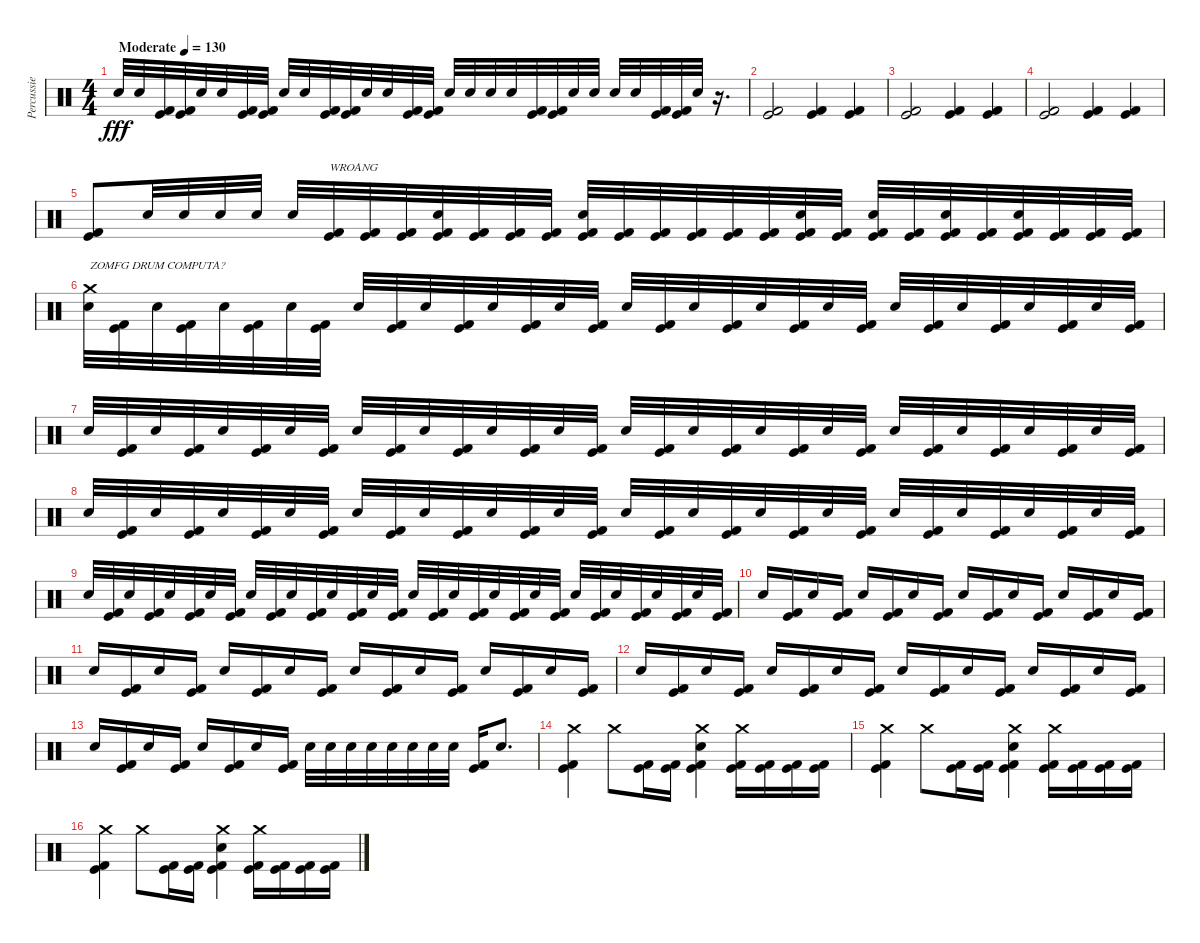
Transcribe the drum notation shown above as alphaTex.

\track ("Percussie" "Percussie") {instrument percussion}
\staff {score}
\articulation defaults
\ts (4 4)
\tempo (130 "Moderate")
\clef neutral
\ks c "Electric Snare (hit)".32{dy fff} "Electric Snare (hit)".32
("Kick (hit)" "Kick (hit) 2").32 ("Kick (hit)" "Kick (hit) 2").32 "Electric Snare (hit)".32 "Electric Snare (hit)".32 ("Kick (hit)" "Kick (hit) 2").32 ("Kick (hit)" "Kick (hit) 2").32 "Electric Snare (hit)".32 "Electric Snare (hit)".32 ("Kick (hit)" "Kick (hit) 2").32 ("Kick (hit)" "Kick (hit) 2").32 "Electric Snare (hit)".32 "Electric Snare (hit)".32 ("Kick (hit)" "Kick (hit) 2").32 ("Kick (hit)" "Kick (hit) 2").32 "Electric Snare (hit)".32 "Electric Snare (hit)".32 "Electric Snare (hit)".32 "Electric Snare (hit)".32 ("Kick (hit)" "Kick (hit) 2").32 ("Kick (hit)" "Kick (hit) 2").32 "Electric Snare (hit)".32 "Electric Snare (hit)".32 "Electric Snare (hit)".32 "Electric Snare (hit)".32 ("Kick (hit)" "Kick (hit) 2").32 ("Kick (hit)" "Kick (hit) 2").32 "Electric Snare (hit)".32 r.16{d} |
("Kick (hit)" "Kick (hit) 2").2 ("Kick (hit)" "Kick (hit) 2").4 ("Kick (hit)" "Kick (hit) 2").4 |
("Kick (hit)" "Kick (hit) 2").2 ("Kick (hit)" "Kick (hit) 2").4 ("Kick (hit)" "Kick (hit) 2").4 |
("Kick (hit)" "Kick (hit) 2").2 ("Kick (hit)" "Kick (hit) 2").4 ("Kick (hit)" "Kick (hit) 2").4 |
("Kick (hit)" "Kick (hit) 2").8 "Electric Snare (hit)".32 "Electric Snare (hit)".32 "Electric Snare (hit)".32 "Electric Snare (hit)".32 "Electric Snare (hit)".32 ("Kick (hit)" "Kick (hit) 2").32{txt "WROANG"} ("Kick (hit)" "Kick (hit) 2").32 ("Kick (hit)" "Kick (hit) 2").32 ("Electric Snare (hit)" "Kick (hit)" "Kick (hit) 2").32 ("Kick (hit)" "Kick (hit) 2").32 ("Kick (hit)" "Kick (hit) 2").32 ("Kick (hit)" "Kick (hit) 2").32 ("Electric Snare (hit)" "Kick (hit)" "Kick (hit) 2").32 ("Kick (hit)" "Kick (hit) 2").32 ("Kick (hit)" "Kick (hit) 2").32 ("Kick (hit)" "Kick (hit) 2").32 ("Kick (hit)" "Kick (hit) 2").32 ("Kick (hit)" "Kick (hit) 2").32 ("Electric Snare (hit)" "Kick (hit)" "Kick (hit) 2").32 ("Kick (hit)" "Kick (hit) 2").32 ("Electric Snare (hit)" "Kick (hit)" "Kick (hit) 2").32 ("Kick (hit)" "Kick (hit) 2").32 ("Electric Snare (hit)" "Kick (hit)" "Kick (hit) 2").32 ("Kick (hit)" "Kick (hit) 2").32 ("Electric Snare (hit)" "Kick (hit)" "Kick (hit) 2").32 ("Kick (hit)" "Kick (hit) 2").32 ("Kick (hit)" "Kick (hit) 2").32 ("Kick (hit)" "Kick (hit) 2").32 |
("Crash medium (hit)" "Electric Snare (hit)").32{txt "ZOMFG DRUM COMPUTA?"} ("Kick (hit)" "Kick (hit) 2").32 "Electric Snare (hit)".32 ("Kick (hit)" "Kick (hit) 2").32 "Electric Snare (hit)".32 ("Kick (hit)" "Kick (hit) 2").32 "Electric Snare (hit)".32 ("Kick (hit)" "Kick (hit) 2").32 "Electric Snare (hit)".32 ("Kick (hit)" "Kick (hit) 2").32 "Electric Snare (hit)".32 ("Kick (hit)" "Kick (hit) 2").32 "Electric Snare (hit)".32 ("Kick (hit)" "Kick (hit) 2").32 "Electric Snare (hit)".32 ("Kick (hit)" "Kick (hit) 2").32 "Electric Snare (hit)".32 ("Kick (hit)" "Kick (hit) 2").32 "Electric Snare (hit)".32 ("Kick (hit)" "Kick (hit) 2").32 "Electric Snare (hit)".32 ("Kick (hit)" "Kick (hit) 2").32 "Electric Snare (hit)".32 ("Kick (hit)" "Kick (hit) 2").32 "Electric Snare (hit)".32 ("Kick (hit)" "Kick (hit) 2").32 "Electric Snare (hit)".32 ("Kick (hit)" "Kick (hit) 2").32 "Electric Snare (hit)".32 ("Kick (hit)" "Kick (hit) 2").32 "Electric Snare (hit)".32 ("Kick (hit)" "Kick (hit) 2").32 |
"Electric Snare (hit)".32 ("Kick (hit)" "Kick (hit) 2").32 "Electric Snare (hit)".32 ("Kick (hit)" "Kick (hit) 2").32 "Electric Snare (hit)".32 ("Kick (hit)" "Kick (hit) 2").32 "Electric Snare (hit)".32 ("Kick (hit)" "Kick (hit) 2").32 "Electric Snare (hit)".32 ("Kick (hit)" "Kick (hit) 2").32 "Electric Snare (hit)".32 ("Kick (hit)" "Kick (hit) 2").32 "Electric Snare (hit)".32 ("Kick (hit)" "Kick (hit) 2").32 "Electric Snare (hit)".32 ("Kick (hit)" "Kick (hit) 2").32 "Electric Snare (hit)".32 ("Kick (hit)" "Kick (hit) 2").32 "Electric Snare (hit)".32 ("Kick (hit)" "Kick (hit) 2").32 "Electric Snare (hit)".32 ("Kick (hit)" "Kick (hit) 2").32 "Electric Snare (hit)".32 ("Kick (hit)" "Kick (hit) 2").32 "Electric Snare (hit)".32 ("Kick (hit)" "Kick (hit) 2").32 "Electric Snare (hit)".32 ("Kick (hit)" "Kick (hit) 2").32 "Electric Snare (hit)".32 ("Kick (hit)" "Kick (hit) 2").32 "Electric Snare (hit)".32 ("Kick (hit)" "Kick (hit) 2").32 |
"Electric Snare (hit)".32 ("Kick (hit)" "Kick (hit) 2").32 "Electric Snare (hit)".32 ("Kick (hit)" "Kick (hit) 2").32 "Electric Snare (hit)".32 ("Kick (hit)" "Kick (hit) 2").32 "Electric Snare (hit)".32 ("Kick (hit)" "Kick (hit) 2").32 "Electric Snare (hit)".32 ("Kick (hit)" "Kick (hit) 2").32 "Electric Snare (hit)".32 ("Kick (hit)" "Kick (hit) 2").32 "Electric Snare (hit)".32 ("Kick (hit)" "Kick (hit) 2").32 "Electric Snare (hit)".32 ("Kick (hit)" "Kick (hit) 2").32 "Electric Snare (hit)".32 ("Kick (hit)" "Kick (hit) 2").32 "Electric Snare (hit)".32 ("Kick (hit)" "Kick (hit) 2").32 "Electric Snare (hit)".32 ("Kick (hit)" "Kick (hit) 2").32 "Electric Snare (hit)".32 ("Kick (hit)" "Kick (hit) 2").32 "Electric Snare (hit)".32 ("Kick (hit)" "Kick (hit) 2").32 "Electric Snare (hit)".32 ("Kick (hit)" "Kick (hit) 2").32 "Electric Snare (hit)".32 ("Kick (hit)" "Kick (hit) 2").32 "Electric Snare (hit)".32 ("Kick (hit)" "Kick (hit) 2").32 |
"Electric Snare (hit)".32 ("Kick (hit)" "Kick (hit) 2").32 "Electric Snare (hit)".32 ("Kick (hit)" "Kick (hit) 2").32 "Electric Snare (hit)".32 ("Kick (hit)" "Kick (hit) 2").32 "Electric Snare (hit)".32 ("Kick (hit)" "Kick (hit) 2").32 "Electric Snare (hit)".32 ("Kick (hit)" "Kick (hit) 2").32 "Electric Snare (hit)".32 ("Kick (hit)" "Kick (hit) 2").32 "Electric Snare (hit)".32 ("Kick (hit)" "Kick (hit) 2").32 "Electric Snare (hit)".32 ("Kick (hit)" "Kick (hit) 2").32 "Electric Snare (hit)".32 ("Kick (hit)" "Kick (hit) 2").32 "Electric Snare (hit)".32 ("Kick (hit)" "Kick (hit) 2").32 "Electric Snare (hit)".32 ("Kick (hit)" "Kick (hit) 2").32 "Electric Snare (hit)".32 ("Kick (hit)" "Kick (hit) 2").32 "Electric Snare (hit)".32 ("Kick (hit)" "Kick (hit) 2").32 "Electric Snare (hit)".32 ("Kick (hit)" "Kick (hit) 2").32 "Electric Snare (hit)".32 ("Kick (hit)" "Kick (hit) 2").32 "Electric Snare (hit)".32 ("Kick (hit)" "Kick (hit) 2").32 |
"Electric Snare (hit)".16 ("Kick (hit)" "Kick (hit) 2").16 "Electric Snare (hit)".16 ("Kick (hit)" "Kick (hit) 2").16 "Electric Snare (hit)".16 ("Kick (hit)" "Kick (hit) 2").16 "Electric Snare (hit)".16 ("Kick (hit)" "Kick (hit) 2").16 "Electric Snare (hit)".16 ("Kick (hit)" "Kick (hit) 2").16 "Electric Snare (hit)".16 ("Kick (hit)" "Kick (hit) 2").16 "Electric Snare (hit)".16 ("Kick (hit)" "Kick (hit) 2").16 "Electric Snare (hit)".16 ("Kick (hit)" "Kick (hit) 2").16 |
"Electric Snare (hit)".16 ("Kick (hit)" "Kick (hit) 2").16 "Electric Snare (hit)".16 ("Kick (hit)" "Kick (hit) 2").16 "Electric Snare (hit)".16 ("Kick (hit)" "Kick (hit) 2").16 "Electric Snare (hit)".16 ("Kick (hit)" "Kick (hit) 2").16 "Electric Snare (hit)".16 ("Kick (hit)" "Kick (hit) 2").16 "Electric Snare (hit)".16 ("Kick (hit)" "Kick (hit) 2").16 "Electric Snare (hit)".16 ("Kick (hit)" "Kick (hit) 2").16 "Electric Snare (hit)".16 ("Kick (hit)" "Kick (hit) 2").16 |
"Electric Snare (hit)".16 ("Kick (hit)" "Kick (hit) 2").16 "Electric Snare (hit)".16 ("Kick (hit)" "Kick (hit) 2").16 "Electric Snare (hit)".16 ("Kick (hit)" "Kick (hit) 2").16 "Electric Snare (hit)".16 ("Kick (hit)" "Kick (hit) 2").16 "Electric Snare (hit)".16 ("Kick (hit)" "Kick (hit) 2").16 "Electric Snare (hit)".16 ("Kick (hit)" "Kick (hit) 2").16 "Electric Snare (hit)".16 ("Kick (hit)" "Kick (hit) 2").16 "Electric Snare (hit)".16 ("Kick (hit)" "Kick (hit) 2").16 |
"Electric Snare (hit)".16 ("Kick (hit)" "Kick (hit) 2").16 "Electric Snare (hit)".16 ("Kick (hit)" "Kick (hit) 2").16 "Electric Snare (hit)".16 ("Kick (hit)" "Kick (hit) 2").16 "Electric Snare (hit)".16 ("Kick (hit)" "Kick (hit) 2").16 "Electric Snare (hit)".32 "Electric Snare (hit)".32 "Electric Snare (hit)".32 "Electric Snare (hit)".32 "Electric Snare (hit)".32 "Electric Snare (hit)".32 "Electric Snare (hit)".32 "Electric Snare (hit)".32 ("Kick (hit)" "Kick (hit) 2").16 "Electric Snare (hit)".8{d} |
("Crash medium (hit)" "Kick (hit)" "Kick (hit) 2").4 "Crash medium (hit)".8 ("Kick (hit)" "Kick (hit) 2").16 ("Kick (hit)" "Kick (hit) 2").16 ("Crash medium (hit)" "Electric Snare (hit)" "Kick (hit)" "Kick (hit) 2").4 ("Crash medium (hit)" "Kick (hit)" "Kick (hit) 2").16 ("Kick (hit)" "Kick (hit) 2").16 ("Kick (hit)" "Kick (hit) 2").16 ("Kick (hit)" "Kick (hit) 2").16 |
("Crash medium (hit)" "Kick (hit)" "Kick (hit) 2").4 "Crash medium (hit)".8 ("Kick (hit)" "Kick (hit) 2").16 ("Kick (hit)" "Kick (hit) 2").16 ("Crash medium (hit)" "Electric Snare (hit)" "Kick (hit)" "Kick (hit) 2").4 ("Crash medium (hit)" "Kick (hit)" "Kick (hit) 2").16 ("Kick (hit)" "Kick (hit) 2").16 ("Kick (hit)" "Kick (hit) 2").16 ("Kick (hit)" "Kick (hit) 2").16 |
("Crash medium (hit)" "Kick (hit)" "Kick (hit) 2").4 "Crash medium (hit)".8 ("Kick (hit)" "Kick (hit) 2").16 ("Kick (hit)" "Kick (hit) 2").16 ("Crash medium (hit)" "Electric Snare (hit)" "Kick (hit)" "Kick (hit) 2").4 ("Crash medium (hit)" "Kick (hit)" "Kick (hit) 2").16 ("Kick (hit)" "Kick (hit) 2").16 ("Kick (hit)" "Kick (hit) 2").16 ("Kick (hit)" "Kick (hit) 2").16
